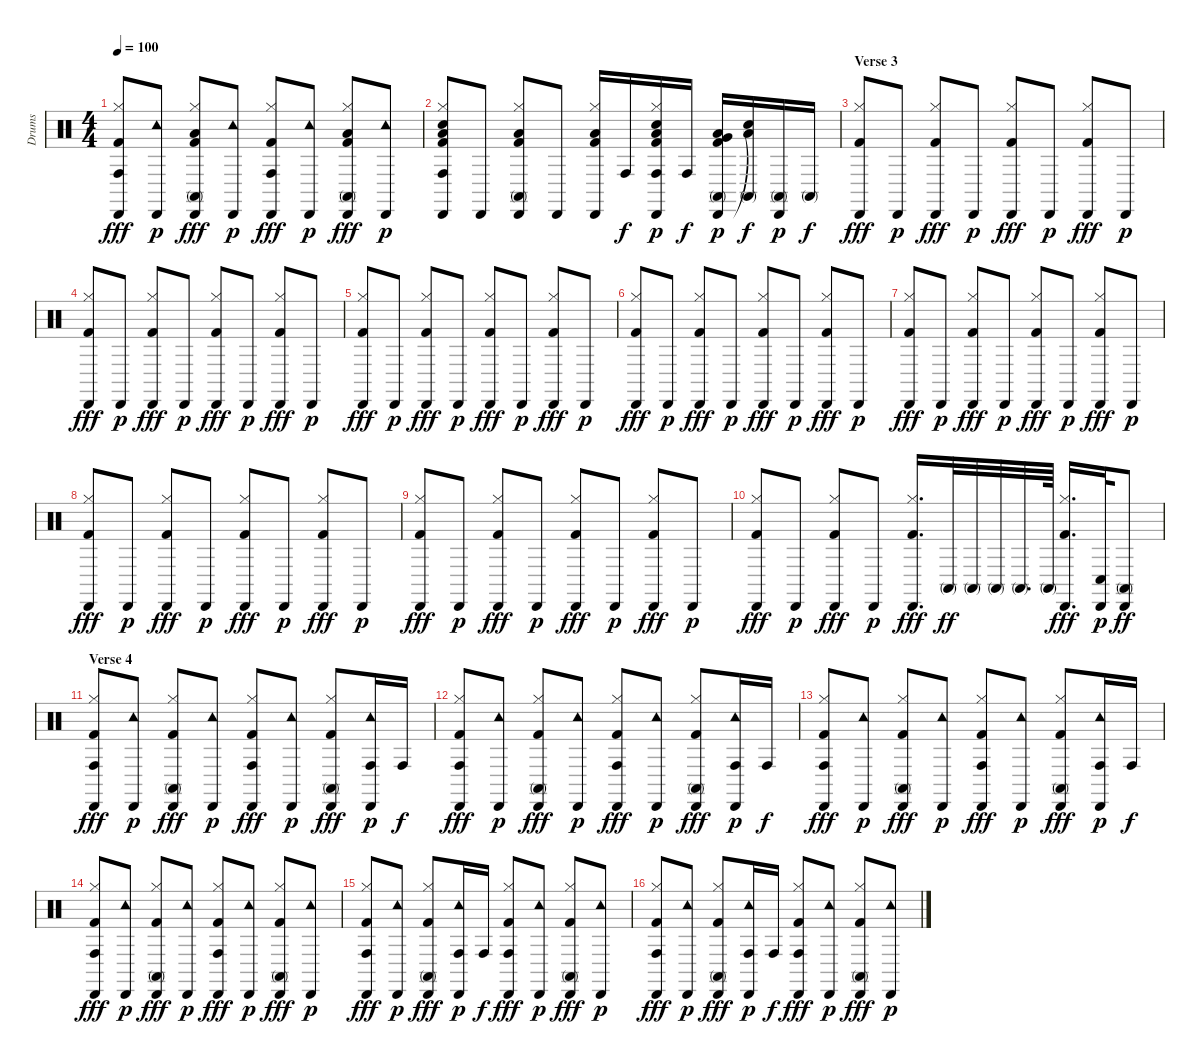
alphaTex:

\track ("Drums" "Drums") {instrument percussion}
\staff {score}
\articulation defaults
\ts (4 4)
\tempo 100
\clef neutral
\ks c
("Cabasa (hit)" "Hi-Hat (closed)" "Conga high (hit)" "Kick (hit) 2").8{dy fff} ("Cabasa (hit)" "Tambourine (hit)").8{dy p} ("Cabasa (hit)" "Hi-Hat (closed)" "Conga high (mute)" "Low Tom (hit)" "Kick (hit) 2").8{dy fff} ("Cabasa (hit)" "Tambourine (hit)").8{dy p} ("Cabasa (hit)" "Hi-Hat (closed)" "Conga high (hit)" "Kick (hit) 2").8{dy fff} ("Cabasa (hit)" "Tambourine (hit)").8{dy p} ("Cabasa (hit)" "Hi-Hat (closed)" "Conga high (mute)" "Low Tom (hit)" "Kick (hit) 2").8{dy fff} ("Cabasa (hit)" "Tambourine (hit)").8{dy p} |
("Cabasa (hit)" "Low Tom (hit)" "Hi-Hat (closed)" "Conga high (hit)" "Snare (hit) 2" "Kick (hit) 2").8 "Cabasa (hit)".8 ("Cabasa (hit)" "Low Tom (hit)" "Hi-Hat (closed)" "Conga high (mute)" "Kick (hit) 2").8 "Cabasa (hit)".8 ("Cabasa (hit)" "Low Tom (hit)" "Hi-Hat (closed)" "Kick (hit) 2").16 "Conga high (hit)".16{dy f} ("Cabasa (hit)" "Low Tom (hit)" "Hi-Hat (closed)" "Conga high (hit)" "Snare (hit) 2" "Kick (hit) 2").16{dy p} "Conga high (hit)".16{dy f} ("Cabasa (hit)" "Low Tom (hit)" "Conga high (mute)" "Very Low Tom (hit)" "Kick (hit) 2").16{dy p} ("Snare (hit)"{t} "Conga high (mute)" "Low Tom (hit)").16{dy f} ("Cabasa (hit)" "Conga high (mute)").16{dy p} "Conga high (mute)".16{dy f} |
\section ("" "Verse 3")
("Cabasa (hit)" "Hi-Hat (closed)" "Kick (hit) 2").8{dy fff} "Cabasa (hit)".8{dy p} ("Cabasa (hit)" "Hi-Hat (closed)" "Kick (hit) 2").8{dy fff} "Cabasa (hit)".8{dy p} ("Cabasa (hit)" "Hi-Hat (closed)" "Kick (hit) 2").8{dy fff} "Cabasa (hit)".8{dy p} ("Cabasa (hit)" "Hi-Hat (closed)" "Kick (hit) 2").8{dy fff} "Cabasa (hit)".8{dy p} |
("Cabasa (hit)" "Hi-Hat (closed)" "Kick (hit) 2").8{dy fff} "Cabasa (hit)".8{dy p} ("Cabasa (hit)" "Hi-Hat (closed)" "Kick (hit) 2").8{dy fff} "Cabasa (hit)".8{dy p} ("Cabasa (hit)" "Hi-Hat (closed)" "Kick (hit) 2").8{dy fff} "Cabasa (hit)".8{dy p} ("Cabasa (hit)" "Hi-Hat (closed)" "Kick (hit) 2").8{dy fff} "Cabasa (hit)".8{dy p} |
("Cabasa (hit)" "Hi-Hat (closed)" "Kick (hit) 2").8{dy fff} "Cabasa (hit)".8{dy p} ("Cabasa (hit)" "Hi-Hat (closed)" "Kick (hit) 2").8{dy fff} "Cabasa (hit)".8{dy p} ("Cabasa (hit)" "Hi-Hat (closed)" "Kick (hit) 2").8{dy fff} "Cabasa (hit)".8{dy p} ("Cabasa (hit)" "Hi-Hat (closed)" "Kick (hit) 2").8{dy fff} "Cabasa (hit)".8{dy p} |
("Cabasa (hit)" "Hi-Hat (closed)" "Kick (hit) 2").8{dy fff} "Cabasa (hit)".8{dy p} ("Cabasa (hit)" "Hi-Hat (closed)" "Kick (hit) 2").8{dy fff} "Cabasa (hit)".8{dy p} ("Cabasa (hit)" "Hi-Hat (closed)" "Kick (hit) 2").8{dy fff} "Cabasa (hit)".8{dy p} ("Cabasa (hit)" "Hi-Hat (closed)" "Kick (hit) 2").8{dy fff} "Cabasa (hit)".8{dy p} |
("Cabasa (hit)" "Hi-Hat (closed)" "Kick (hit) 2").8{dy fff} "Cabasa (hit)".8{dy p} ("Cabasa (hit)" "Hi-Hat (closed)" "Kick (hit) 2").8{dy fff} "Cabasa (hit)".8{dy p} ("Cabasa (hit)" "Hi-Hat (closed)" "Kick (hit) 2").8{dy fff} "Cabasa (hit)".8{dy p} ("Cabasa (hit)" "Hi-Hat (closed)" "Kick (hit) 2").8{dy fff} "Cabasa (hit)".8{dy p} |
("Cabasa (hit)" "Hi-Hat (closed)" "Kick (hit) 2").8{dy fff} "Cabasa (hit)".8{dy p} ("Cabasa (hit)" "Hi-Hat (closed)" "Kick (hit) 2").8{dy fff} "Cabasa (hit)".8{dy p} ("Cabasa (hit)" "Hi-Hat (closed)" "Kick (hit) 2").8{dy fff} "Cabasa (hit)".8{dy p} ("Cabasa (hit)" "Hi-Hat (closed)" "Kick (hit) 2").8{dy fff} "Cabasa (hit)".8{dy p} |
("Cabasa (hit)" "Hi-Hat (closed)" "Kick (hit) 2").8{dy fff} "Cabasa (hit)".8{dy p} ("Cabasa (hit)" "Hi-Hat (closed)" "Kick (hit) 2").8{dy fff} "Cabasa (hit)".8{dy p} ("Cabasa (hit)" "Hi-Hat (closed)" "Kick (hit) 2").8{dy fff} "Cabasa (hit)".8{dy p} ("Cabasa (hit)" "Hi-Hat (closed)" "Kick (hit) 2").8{dy fff} "Cabasa (hit)".8{dy p} |
("Cabasa (hit)" "Hi-Hat (closed)" "Kick (hit) 2").8{dy fff} "Cabasa (hit)".8{dy p} ("Cabasa (hit)" "Hi-Hat (closed)" "Kick (hit) 2").8{dy fff} "Cabasa (hit)".8{dy p} ("Cabasa (hit)" "Hi-Hat (closed)" "Kick (hit) 2").16{d dy fff} "Conga high (mute)".32{dy ff} "Conga high (mute)".32 "Conga high (mute)".32 "Conga high (mute)".32{d} "Conga high (mute)".64 ("Cabasa (hit)" "Hi-Hat (closed)" "Kick (hit) 2").16{d dy fff} ("Cabasa (hit)" "Conga low (hit)").32{dy p} ("Cabasa (hit)" "Conga high (mute)").8{dy ff} |
\section ("" "Verse 4")
("Cabasa (hit)" "Hi-Hat (closed)" "Conga high (hit)" "Kick (hit) 2").8{dy fff} ("Cabasa (hit)" "Tambourine (hit)").8{dy p} ("Cabasa (hit)" "Hi-Hat (closed)" "Conga high (mute)" "Kick (hit) 2").8{dy fff} ("Cabasa (hit)" "Tambourine (hit)").8{dy p} ("Cabasa (hit)" "Hi-Hat (closed)" "Conga high (hit)" "Kick (hit) 2").8{dy fff} ("Cabasa (hit)" "Tambourine (hit)").8{dy p} ("Cabasa (hit)" "Hi-Hat (closed)" "Conga high (mute)" "Kick (hit) 2").8{dy fff} ("Cabasa (hit)" "Tambourine (hit)" "Conga high (hit)").16{dy p} "Conga high (hit)".16{dy f} |
("Cabasa (hit)" "Hi-Hat (closed)" "Conga high (hit)" "Kick (hit) 2").8{dy fff} ("Cabasa (hit)" "Tambourine (hit)").8{dy p} ("Cabasa (hit)" "Hi-Hat (closed)" "Conga high (mute)" "Kick (hit) 2").8{dy fff} ("Cabasa (hit)" "Tambourine (hit)").8{dy p} ("Cabasa (hit)" "Hi-Hat (closed)" "Conga high (hit)" "Kick (hit) 2").8{dy fff} ("Cabasa (hit)" "Tambourine (hit)").8{dy p} ("Cabasa (hit)" "Hi-Hat (closed)" "Conga high (mute)" "Kick (hit) 2").8{dy fff} ("Cabasa (hit)" "Tambourine (hit)" "Conga high (hit)").16{dy p} "Conga high (hit)".16{dy f} |
("Cabasa (hit)" "Hi-Hat (closed)" "Conga high (hit)" "Kick (hit) 2").8{dy fff} ("Cabasa (hit)" "Tambourine (hit)").8{dy p} ("Cabasa (hit)" "Hi-Hat (closed)" "Conga high (mute)" "Kick (hit) 2").8{dy fff} ("Cabasa (hit)" "Tambourine (hit)").8{dy p} ("Cabasa (hit)" "Hi-Hat (closed)" "Conga high (hit)" "Kick (hit) 2").8{dy fff} ("Cabasa (hit)" "Tambourine (hit)").8{dy p} ("Cabasa (hit)" "Hi-Hat (closed)" "Conga high (mute)" "Kick (hit) 2").8{dy fff} ("Cabasa (hit)" "Tambourine (hit)" "Conga high (hit)").16{dy p} "Conga high (hit)".16{dy f} |
("Cabasa (hit)" "Hi-Hat (closed)" "Conga high (hit)" "Kick (hit) 2").8{dy fff} ("Cabasa (hit)" "Tambourine (hit)").8{dy p} ("Cabasa (hit)" "Hi-Hat (closed)" "Conga high (mute)" "Kick (hit) 2").8{dy fff} ("Cabasa (hit)" "Tambourine (hit)").8{dy p} ("Cabasa (hit)" "Hi-Hat (closed)" "Conga high (hit)" "Kick (hit) 2").8{dy fff} ("Cabasa (hit)" "Tambourine (hit)").8{dy p} ("Cabasa (hit)" "Hi-Hat (closed)" "Conga high (mute)" "Kick (hit) 2").8{dy fff} ("Cabasa (hit)" "Tambourine (hit)").8{dy p} |
("Cabasa (hit)" "Hi-Hat (closed)" "Conga high (hit)" "Kick (hit) 2").8{dy fff} ("Cabasa (hit)" "Tambourine (hit)").8{dy p} ("Cabasa (hit)" "Hi-Hat (closed)" "Conga high (mute)" "Kick (hit) 2").8{dy fff} ("Cabasa (hit)" "Tambourine (hit)" "Conga high (hit)").16{dy p} "Conga high (hit)".16{dy f} ("Cabasa (hit)" "Hi-Hat (closed)" "Conga high (hit)" "Kick (hit) 2").8{dy fff} ("Cabasa (hit)" "Tambourine (hit)").8{dy p} ("Cabasa (hit)" "Hi-Hat (closed)" "Conga high (mute)" "Kick (hit) 2").8{dy fff} ("Cabasa (hit)" "Tambourine (hit)").8{dy p} |
("Cabasa (hit)" "Hi-Hat (closed)" "Conga high (hit)" "Kick (hit) 2").8{dy fff} ("Cabasa (hit)" "Tambourine (hit)").8{dy p} ("Cabasa (hit)" "Hi-Hat (closed)" "Conga high (mute)" "Kick (hit) 2").8{dy fff} ("Cabasa (hit)" "Tambourine (hit)" "Conga high (hit)").16{dy p} "Conga high (hit)".16{dy f} ("Cabasa (hit)" "Hi-Hat (closed)" "Conga high (hit)" "Kick (hit) 2").8{dy fff} ("Cabasa (hit)" "Tambourine (hit)").8{dy p} ("Cabasa (hit)" "Hi-Hat (closed)" "Conga high (mute)" "Kick (hit) 2").8{dy fff} ("Cabasa (hit)" "Tambourine (hit)").8{dy p}
